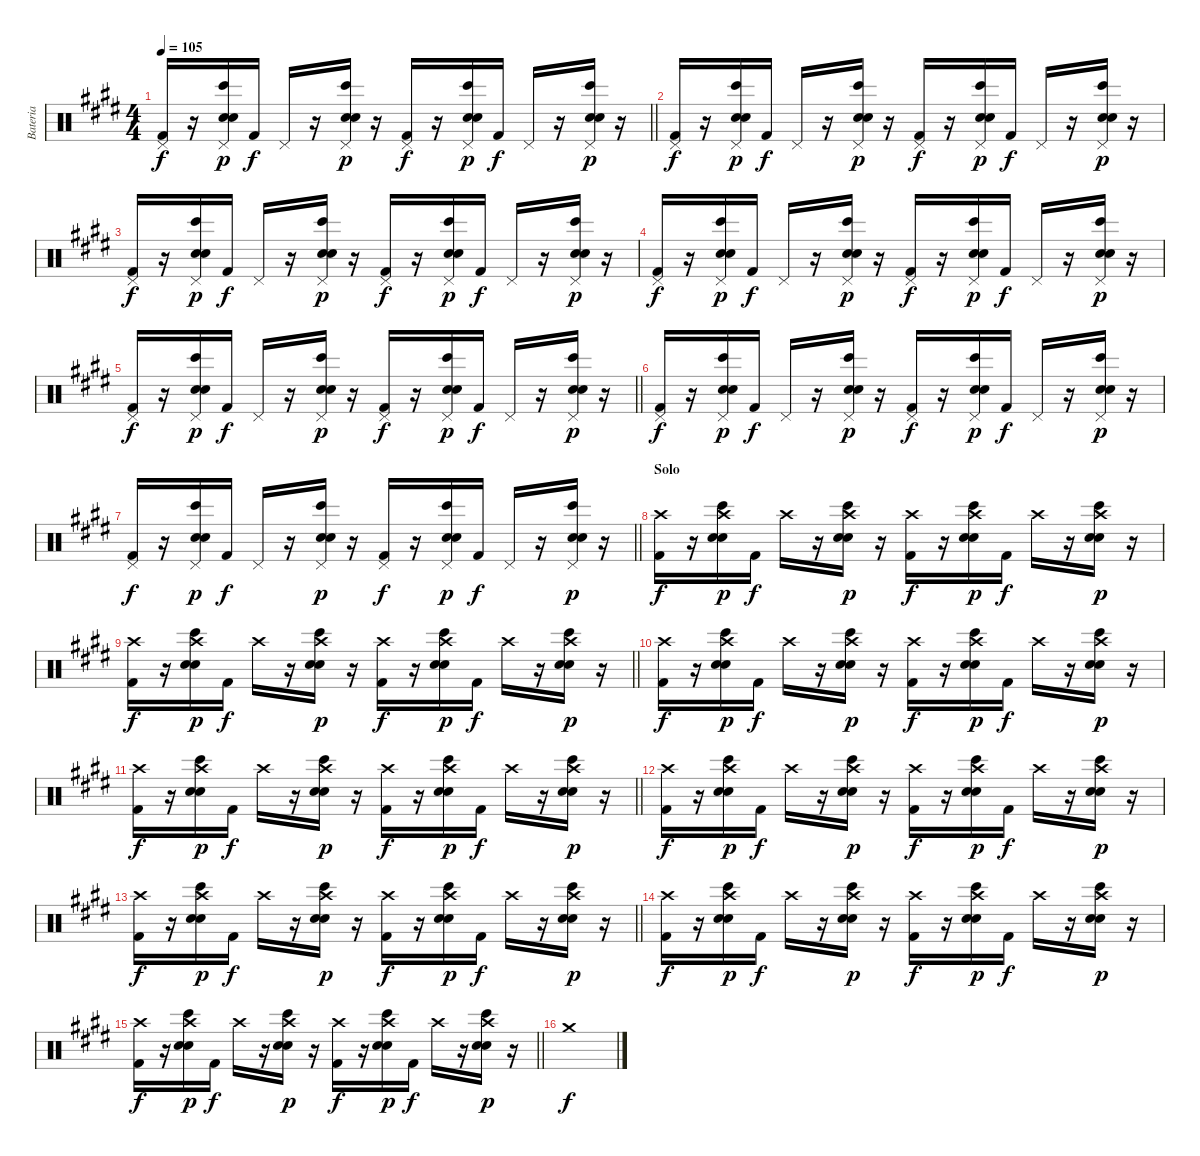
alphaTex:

\track ("Bateria" "Bateria") {instrument percussion}
\staff {score}
\articulation defaults
\ts (4 4)
\tempo 105
\clef neutral
\barLineRight lightlight
\ks c#minor
("Pedal Hi-Hat (hit)" "Kick (hit) 2").16{dy f} r.16 ("Bongo High (hit)" "Pedal Hi-Hat (hit)" "Electric Snare (hit)" "Snare (hit) 2").16{dy p} "Kick (hit) 2".16{dy f} "Pedal Hi-Hat (hit)".16 r.16 ("Bongo High (hit)" "Pedal Hi-Hat (hit)" "Electric Snare (hit)" "Snare (hit) 2").16{dy p} r.16 ("Pedal Hi-Hat (hit)" "Kick (hit) 2").16{dy f} r.16 ("Bongo High (hit)" "Pedal Hi-Hat (hit)" "Electric Snare (hit)" "Snare (hit) 2").16{dy p} "Kick (hit) 2".16{dy f} "Pedal Hi-Hat (hit)".16 r.16 ("Bongo High (hit)" "Pedal Hi-Hat (hit)" "Electric Snare (hit)" "Snare (hit) 2").16{dy p} r.16 |
("Pedal Hi-Hat (hit)" "Kick (hit) 2").16{dy f} r.16 ("Bongo High (hit)" "Pedal Hi-Hat (hit)" "Electric Snare (hit)" "Snare (hit) 2").16{dy p} "Kick (hit) 2".16{dy f} "Pedal Hi-Hat (hit)".16 r.16 ("Bongo High (hit)" "Pedal Hi-Hat (hit)" "Electric Snare (hit)" "Snare (hit) 2").16{dy p} r.16 ("Pedal Hi-Hat (hit)" "Kick (hit) 2").16{dy f} r.16 ("Bongo High (hit)" "Pedal Hi-Hat (hit)" "Electric Snare (hit)" "Snare (hit) 2").16{dy p} "Kick (hit) 2".16{dy f} "Pedal Hi-Hat (hit)".16 r.16 ("Bongo High (hit)" "Pedal Hi-Hat (hit)" "Electric Snare (hit)" "Snare (hit) 2").16{dy p} r.16 |
("Pedal Hi-Hat (hit)" "Kick (hit) 2").16{dy f} r.16 ("Bongo High (hit)" "Pedal Hi-Hat (hit)" "Electric Snare (hit)" "Snare (hit) 2").16{dy p} "Kick (hit) 2".16{dy f} "Pedal Hi-Hat (hit)".16 r.16 ("Bongo High (hit)" "Pedal Hi-Hat (hit)" "Electric Snare (hit)" "Snare (hit) 2").16{dy p} r.16 ("Pedal Hi-Hat (hit)" "Kick (hit) 2").16{dy f} r.16 ("Bongo High (hit)" "Pedal Hi-Hat (hit)" "Electric Snare (hit)" "Snare (hit) 2").16{dy p} "Kick (hit) 2".16{dy f} "Pedal Hi-Hat (hit)".16 r.16 ("Bongo High (hit)" "Pedal Hi-Hat (hit)" "Electric Snare (hit)" "Snare (hit) 2").16{dy p} r.16 |
("Pedal Hi-Hat (hit)" "Kick (hit) 2").16{dy f} r.16 ("Bongo High (hit)" "Pedal Hi-Hat (hit)" "Electric Snare (hit)" "Snare (hit) 2").16{dy p} "Kick (hit) 2".16{dy f} "Pedal Hi-Hat (hit)".16 r.16 ("Bongo High (hit)" "Pedal Hi-Hat (hit)" "Electric Snare (hit)" "Snare (hit) 2").16{dy p} r.16 ("Pedal Hi-Hat (hit)" "Kick (hit) 2").16{dy f} r.16 ("Bongo High (hit)" "Pedal Hi-Hat (hit)" "Electric Snare (hit)" "Snare (hit) 2").16{dy p} "Kick (hit) 2".16{dy f} "Pedal Hi-Hat (hit)".16 r.16 ("Bongo High (hit)" "Pedal Hi-Hat (hit)" "Electric Snare (hit)" "Snare (hit) 2").16{dy p} r.16 |
\barLineRight lightlight
("Pedal Hi-Hat (hit)" "Kick (hit) 2").16{dy f} r.16 ("Bongo High (hit)" "Pedal Hi-Hat (hit)" "Electric Snare (hit)" "Snare (hit) 2").16{dy p} "Kick (hit) 2".16{dy f} "Pedal Hi-Hat (hit)".16 r.16 ("Bongo High (hit)" "Pedal Hi-Hat (hit)" "Electric Snare (hit)" "Snare (hit) 2").16{dy p} r.16 ("Pedal Hi-Hat (hit)" "Kick (hit) 2").16{dy f} r.16 ("Bongo High (hit)" "Pedal Hi-Hat (hit)" "Electric Snare (hit)" "Snare (hit) 2").16{dy p} "Kick (hit) 2".16{dy f} "Pedal Hi-Hat (hit)".16 r.16 ("Bongo High (hit)" "Pedal Hi-Hat (hit)" "Electric Snare (hit)" "Snare (hit) 2").16{dy p} r.16 |
("Pedal Hi-Hat (hit)" "Kick (hit) 2").16{dy f} r.16 ("Bongo High (hit)" "Pedal Hi-Hat (hit)" "Electric Snare (hit)" "Snare (hit) 2").16{dy p} "Kick (hit) 2".16{dy f} "Pedal Hi-Hat (hit)".16 r.16 ("Bongo High (hit)" "Pedal Hi-Hat (hit)" "Electric Snare (hit)" "Snare (hit) 2").16{dy p} r.16 ("Pedal Hi-Hat (hit)" "Kick (hit) 2").16{dy f} r.16 ("Bongo High (hit)" "Pedal Hi-Hat (hit)" "Electric Snare (hit)" "Snare (hit) 2").16{dy p} "Kick (hit) 2".16{dy f} "Pedal Hi-Hat (hit)".16 r.16 ("Bongo High (hit)" "Pedal Hi-Hat (hit)" "Electric Snare (hit)" "Snare (hit) 2").16{dy p} r.16 |
\barLineRight lightlight
("Pedal Hi-Hat (hit)" "Kick (hit) 2").16{dy f} r.16 ("Bongo High (hit)" "Pedal Hi-Hat (hit)" "Electric Snare (hit)" "Snare (hit) 2").16{dy p} "Kick (hit) 2".16{dy f} "Pedal Hi-Hat (hit)".16 r.16 ("Bongo High (hit)" "Pedal Hi-Hat (hit)" "Electric Snare (hit)" "Snare (hit) 2").16{dy p} r.16 ("Pedal Hi-Hat (hit)" "Kick (hit) 2").16{dy f} r.16 ("Bongo High (hit)" "Pedal Hi-Hat (hit)" "Electric Snare (hit)" "Snare (hit) 2").16{dy p} "Kick (hit) 2".16{dy f} "Pedal Hi-Hat (hit)".16 r.16 ("Bongo High (hit)" "Pedal Hi-Hat (hit)" "Electric Snare (hit)" "Snare (hit) 2").16{dy p} r.16 |
\section ("" "Solo")
("Crash high (hit)" "Kick (hit) 2").16{dy f} r.16 ("Bongo High (hit)" "Crash high (hit)" "Electric Snare (hit)" "Snare (hit) 2").16{dy p} "Kick (hit) 2".16{dy f} "Crash high (hit)".16 r.16 ("Bongo High (hit)" "Crash high (hit)" "Electric Snare (hit)" "Snare (hit) 2").16{dy p} r.16 ("Crash high (hit)" "Kick (hit) 2").16{dy f} r.16 ("Bongo High (hit)" "Crash high (hit)" "Electric Snare (hit)" "Snare (hit) 2").16{dy p} "Kick (hit) 2".16{dy f} "Crash high (hit)".16 r.16 ("Bongo High (hit)" "Crash high (hit)" "Electric Snare (hit)" "Snare (hit) 2").16{dy p} r.16 |
\barLineRight lightlight
("Crash high (hit)" "Kick (hit) 2").16{dy f} r.16 ("Bongo High (hit)" "Crash high (hit)" "Electric Snare (hit)" "Snare (hit) 2").16{dy p} "Kick (hit) 2".16{dy f} "Crash high (hit)".16 r.16 ("Bongo High (hit)" "Crash high (hit)" "Electric Snare (hit)" "Snare (hit) 2").16{dy p} r.16 ("Crash high (hit)" "Kick (hit) 2").16{dy f} r.16 ("Bongo High (hit)" "Crash high (hit)" "Electric Snare (hit)" "Snare (hit) 2").16{dy p} "Kick (hit) 2".16{dy f} "Crash high (hit)".16 r.16 ("Bongo High (hit)" "Crash high (hit)" "Electric Snare (hit)" "Snare (hit) 2").16{dy p} r.16 |
("Crash high (hit)" "Kick (hit) 2").16{dy f} r.16 ("Bongo High (hit)" "Crash high (hit)" "Electric Snare (hit)" "Snare (hit) 2").16{dy p} "Kick (hit) 2".16{dy f} "Crash high (hit)".16 r.16 ("Bongo High (hit)" "Crash high (hit)" "Electric Snare (hit)" "Snare (hit) 2").16{dy p} r.16 ("Crash high (hit)" "Kick (hit) 2").16{dy f} r.16 ("Bongo High (hit)" "Crash high (hit)" "Electric Snare (hit)" "Snare (hit) 2").16{dy p} "Kick (hit) 2".16{dy f} "Crash high (hit)".16 r.16 ("Bongo High (hit)" "Crash high (hit)" "Electric Snare (hit)" "Snare (hit) 2").16{dy p} r.16 |
\barLineRight lightlight
("Crash high (hit)" "Kick (hit) 2").16{dy f} r.16 ("Bongo High (hit)" "Crash high (hit)" "Electric Snare (hit)" "Snare (hit) 2").16{dy p} "Kick (hit) 2".16{dy f} "Crash high (hit)".16 r.16 ("Bongo High (hit)" "Crash high (hit)" "Electric Snare (hit)" "Snare (hit) 2").16{dy p} r.16 ("Crash high (hit)" "Kick (hit) 2").16{dy f} r.16 ("Bongo High (hit)" "Crash high (hit)" "Electric Snare (hit)" "Snare (hit) 2").16{dy p} "Kick (hit) 2".16{dy f} "Crash high (hit)".16 r.16 ("Bongo High (hit)" "Crash high (hit)" "Electric Snare (hit)" "Snare (hit) 2").16{dy p} r.16 |
("Crash high (hit)" "Kick (hit) 2").16{dy f} r.16 ("Bongo High (hit)" "Crash high (hit)" "Electric Snare (hit)" "Snare (hit) 2").16{dy p} "Kick (hit) 2".16{dy f} "Crash high (hit)".16 r.16 ("Bongo High (hit)" "Crash high (hit)" "Electric Snare (hit)" "Snare (hit) 2").16{dy p} r.16 ("Crash high (hit)" "Kick (hit) 2").16{dy f} r.16 ("Bongo High (hit)" "Crash high (hit)" "Electric Snare (hit)" "Snare (hit) 2").16{dy p} "Kick (hit) 2".16{dy f} "Crash high (hit)".16 r.16 ("Bongo High (hit)" "Crash high (hit)" "Electric Snare (hit)" "Snare (hit) 2").16{dy p} r.16 |
\barLineRight lightlight
("Crash high (hit)" "Kick (hit) 2").16{dy f} r.16 ("Bongo High (hit)" "Crash high (hit)" "Electric Snare (hit)" "Snare (hit) 2").16{dy p} "Kick (hit) 2".16{dy f} "Crash high (hit)".16 r.16 ("Bongo High (hit)" "Crash high (hit)" "Electric Snare (hit)" "Snare (hit) 2").16{dy p} r.16 ("Crash high (hit)" "Kick (hit) 2").16{dy f} r.16 ("Bongo High (hit)" "Crash high (hit)" "Electric Snare (hit)" "Snare (hit) 2").16{dy p} "Kick (hit) 2".16{dy f} "Crash high (hit)".16 r.16 ("Bongo High (hit)" "Crash high (hit)" "Electric Snare (hit)" "Snare (hit) 2").16{dy p} r.16 |
("Crash high (hit)" "Kick (hit) 2").16{dy f} r.16 ("Bongo High (hit)" "Crash high (hit)" "Electric Snare (hit)" "Snare (hit) 2").16{dy p} "Kick (hit) 2".16{dy f} "Crash high (hit)".16 r.16 ("Bongo High (hit)" "Crash high (hit)" "Electric Snare (hit)" "Snare (hit) 2").16{dy p} r.16 ("Crash high (hit)" "Kick (hit) 2").16{dy f} r.16 ("Bongo High (hit)" "Crash high (hit)" "Electric Snare (hit)" "Snare (hit) 2").16{dy p} "Kick (hit) 2".16{dy f} "Crash high (hit)".16 r.16 ("Bongo High (hit)" "Crash high (hit)" "Electric Snare (hit)" "Snare (hit) 2").16{dy p} r.16 |
\barLineRight lightlight
("Crash high (hit)" "Kick (hit) 2").16{dy f} r.16 ("Bongo High (hit)" "Crash high (hit)" "Electric Snare (hit)" "Snare (hit) 2").16{dy p} "Kick (hit) 2".16{dy f} "Crash high (hit)".16 r.16 ("Bongo High (hit)" "Crash high (hit)" "Electric Snare (hit)" "Snare (hit) 2").16{dy p} r.16 ("Crash high (hit)" "Kick (hit) 2").16{dy f} r.16 ("Bongo High (hit)" "Crash high (hit)" "Electric Snare (hit)" "Snare (hit) 2").16{dy p} "Kick (hit) 2".16{dy f} "Crash high (hit)".16 r.16 ("Bongo High (hit)" "Crash high (hit)" "Electric Snare (hit)" "Snare (hit) 2").16{dy p} r.16 |
"Crash medium (hit)".1{dy f}
